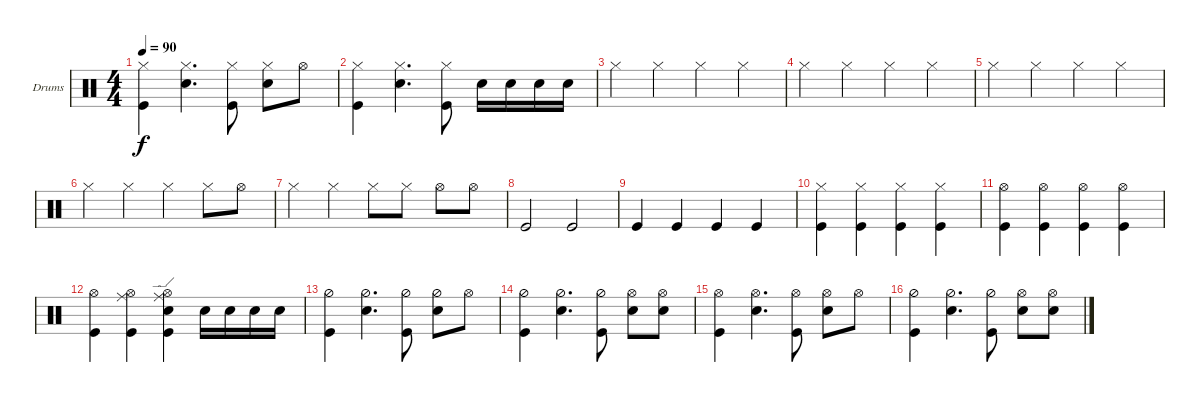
\bracketExtendMode groupsimilarinstruments
\firstSystemTrackNameOrientation horizontal
\otherSystemsTrackNameOrientation horizontal
\track ("Drumkit" "Drums") {instrument percussion}
\staff {score}
\articulation defaults
\ts (4 4)
\tempo 90
\clef neutral
\ks c
("Kick (hit)" "Hi-Hat (closed)").4{dy f} ("Snare (hit) 2" "Hi-Hat (closed)").4{d} ("Kick (hit)" "Hi-Hat (closed)").8 ("Snare (hit) 2" "Hi-Hat (closed)").8 "Hi-Hat (open)".8 |
("Kick (hit)" "Hi-Hat (closed)").4 ("Snare (hit) 2" "Hi-Hat (closed)").4{d} ("Kick (hit)" "Hi-Hat (closed)").8 "Snare (hit) 2".16 "Snare (hit) 2".16 "Snare (hit) 2".16 "Snare (hit) 2".16 |
"Hi-Hat (closed)".4 "Hi-Hat (closed)".4 "Hi-Hat (closed)".4 "Hi-Hat (closed)".4 |
"Hi-Hat (closed)".4 "Hi-Hat (closed)".4 "Hi-Hat (closed)".4 "Hi-Hat (closed)".4 |
"Hi-Hat (closed)".4 "Hi-Hat (closed)".4 "Hi-Hat (closed)".4 "Hi-Hat (closed)".4 |
"Hi-Hat (closed)".4 "Hi-Hat (closed)".4 "Hi-Hat (closed)".4 "Hi-Hat (closed)".8 "Hi-Hat (open)".8 |
"Hi-Hat (closed)".4 "Hi-Hat (closed)".4 "Hi-Hat (closed)".8 "Hi-Hat (closed)".8 "Hi-Hat (open)".8 "Hi-Hat (open)".8 |
"Kick (hit)".2 "Kick (hit)".2 |
"Kick (hit)".4 "Kick (hit)".4 "Kick (hit)".4 "Kick (hit)".4 |
("Hi-Hat (closed)" "Kick (hit)").4 ("Hi-Hat (closed)" "Kick (hit)").4 ("Hi-Hat (closed)" "Kick (hit)").4 ("Hi-Hat (closed)" "Kick (hit)").4 |
("Hi-Hat (open)" "Kick (hit)").4 ("Hi-Hat (open)" "Kick (hit)").4 ("Hi-Hat (open)" "Kick (hit)").4 ("Hi-Hat (open)" "Kick (hit)").4 |
("Hi-Hat (open)" "Kick (hit)").4 ("Hi-Hat (open)" "Kick (hit)" "Ride (middle)").4 ("Snare (hit) 2" "Ride (edge)" "Kick (hit)" "Hi-Hat (open)").4 "Snare (hit) 2".16 "Snare (hit) 2".16 "Snare (hit) 2".16 "Snare (hit) 2".16 |
("Kick (hit)" "Hi-Hat (half)").4 ("Snare (hit) 2" "Hi-Hat (half)").4{d} ("Kick (hit)" "Hi-Hat (half)").8 ("Snare (hit) 2" "Hi-Hat (half)").8 "Hi-Hat (open)".8 |
("Kick (hit)" "Hi-Hat (half)").4 ("Snare (hit) 2" "Hi-Hat (half)").4{d} ("Kick (hit)" "Hi-Hat (half)").8 ("Snare (hit) 2" "Hi-Hat (open)").8 ("Snare (hit) 2" "Hi-Hat (open)").8 |
("Kick (hit)" "Hi-Hat (open)").4 ("Snare (hit) 2" "Hi-Hat (open)").4{d} ("Kick (hit)" "Hi-Hat (open)").8 ("Snare (hit) 2" "Hi-Hat (open)").8 "Hi-Hat (open)".8 |
("Kick (hit)" "Hi-Hat (half)").4 ("Snare (hit) 2" "Hi-Hat (half)").4{d} ("Kick (hit)" "Hi-Hat (half)").8 ("Snare (hit) 2" "Hi-Hat (open)").8 ("Snare (hit) 2" "Hi-Hat (open)").8
